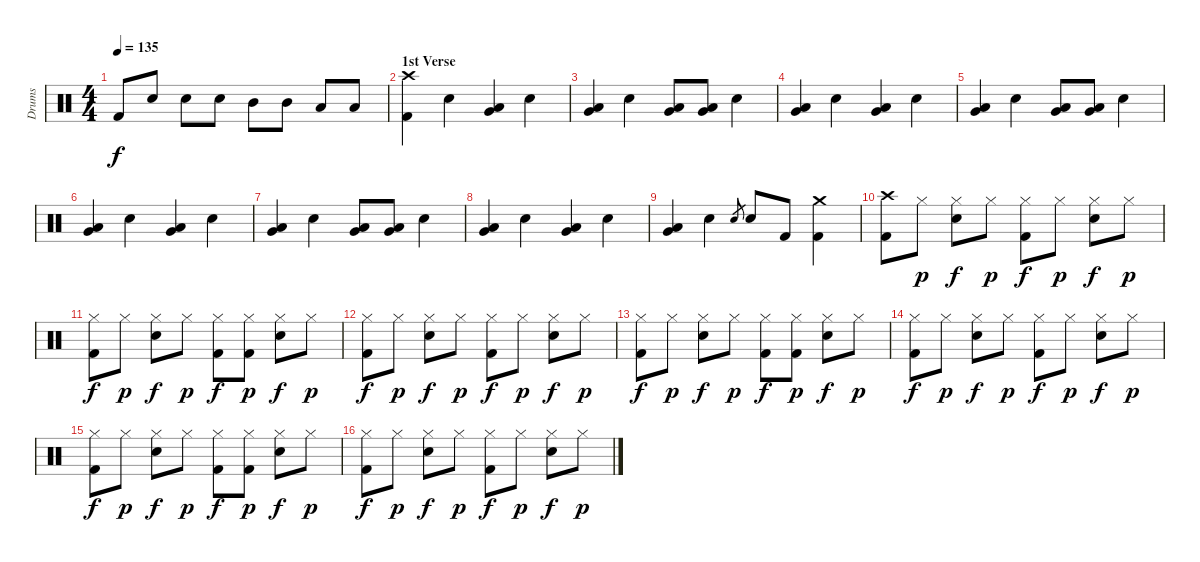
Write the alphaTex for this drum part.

\track ("Drums" "Drums") {instrument percussion}
\staff {score}
\articulation defaults
\ts (4 4)
\tempo 135
\clef neutral
\ks c "Kick (hit) 2".8{dy f} "Snare (hit) 2".8 "Snare (hit) 2".8 "Snare (hit) 2".8 "Mid Tom (hit)".8 "Mid Tom (hit)".8 "Low Tom (hit)".8 "Low Tom (hit)".8
|
\section ("" "1st Verse")
("Crash high (hit)" "Kick (hit) 2").4 "Snare (hit) 2".4 ("Very Low Tom (hit)" "Low Floor Tom (hit)").4 "Snare (hit) 2".4 |
("Very Low Tom (hit)" "Low Floor Tom (hit)").4 "Snare (hit) 2".4 ("Very Low Tom (hit)" "Low Floor Tom (hit)").8 ("Very Low Tom (hit)" "Low Floor Tom (hit)").8 "Snare (hit) 2".4 |
("Very Low Tom (hit)" "Low Floor Tom (hit)").4 "Snare (hit) 2".4 ("Very Low Tom (hit)" "Low Floor Tom (hit)").4 "Snare (hit) 2".4 |
("Very Low Tom (hit)" "Low Floor Tom (hit)").4 "Snare (hit) 2".4 ("Very Low Tom (hit)" "Low Floor Tom (hit)").8 ("Very Low Tom (hit)" "Low Floor Tom (hit)").8 "Snare (hit) 2".4 |
("Very Low Tom (hit)" "Low Floor Tom (hit)").4 "Snare (hit) 2".4 ("Very Low Tom (hit)" "Low Floor Tom (hit)").4 "Snare (hit) 2".4 |
("Very Low Tom (hit)" "Low Floor Tom (hit)").4 "Snare (hit) 2".4 ("Very Low Tom (hit)" "Low Floor Tom (hit)").8 ("Very Low Tom (hit)" "Low Floor Tom (hit)").8 "Snare (hit) 2".4 |
("Very Low Tom (hit)" "Low Floor Tom (hit)").4 "Snare (hit) 2".4 ("Very Low Tom (hit)" "Low Floor Tom (hit)").4 "Snare (hit) 2".4 |
("Very Low Tom (hit)" "Low Floor Tom (hit)").4 "Snare (hit) 2".4 "Snare (hit) 2".8{gr} "Snare (hit) 2".8 "Kick (hit) 2".8 ("Crash medium (hit)" "Kick (hit) 2").4 |
("Crash high (hit)" "Kick (hit) 2").8 "Hi-Hat (closed)".8{dy p} ("Hi-Hat (closed)" "Snare (hit) 2").8{dy f} "Hi-Hat (closed)".8{dy p} ("Hi-Hat (closed)" "Kick (hit) 2").8{dy f} "Hi-Hat (closed)".8{dy p} ("Hi-Hat (closed)" "Snare (hit) 2").8{dy f} "Hi-Hat (closed)".8{dy p} |
("Hi-Hat (closed)" "Kick (hit) 2").8{dy f} "Hi-Hat (closed)".8{dy p} ("Hi-Hat (closed)" "Snare (hit) 2").8{dy f} "Hi-Hat (closed)".8{dy p} ("Hi-Hat (closed)" "Kick (hit) 2").8{dy f} ("Hi-Hat (closed)" "Kick (hit) 2").8{dy p} ("Hi-Hat (closed)" "Snare (hit) 2").8{dy f} "Hi-Hat (closed)".8{dy p} |
("Hi-Hat (closed)" "Kick (hit) 2").8{dy f} "Hi-Hat (closed)".8{dy p} ("Hi-Hat (closed)" "Snare (hit) 2").8{dy f} "Hi-Hat (closed)".8{dy p} ("Hi-Hat (closed)" "Kick (hit) 2").8{dy f} "Hi-Hat (closed)".8{dy p} ("Hi-Hat (closed)" "Snare (hit) 2").8{dy f} "Hi-Hat (closed)".8{dy p} |
("Hi-Hat (closed)" "Kick (hit) 2").8{dy f} "Hi-Hat (closed)".8{dy p} ("Hi-Hat (closed)" "Snare (hit) 2").8{dy f} "Hi-Hat (closed)".8{dy p} ("Hi-Hat (closed)" "Kick (hit) 2").8{dy f} ("Hi-Hat (closed)" "Kick (hit) 2").8{dy p} ("Hi-Hat (closed)" "Snare (hit) 2").8{dy f} "Hi-Hat (closed)".8{dy p} |
("Hi-Hat (closed)" "Kick (hit) 2").8{dy f} "Hi-Hat (closed)".8{dy p} ("Hi-Hat (closed)" "Snare (hit) 2").8{dy f} "Hi-Hat (closed)".8{dy p} ("Hi-Hat (closed)" "Kick (hit) 2").8{dy f} "Hi-Hat (closed)".8{dy p} ("Hi-Hat (closed)" "Snare (hit) 2").8{dy f} "Hi-Hat (closed)".8{dy p} |
("Hi-Hat (closed)" "Kick (hit) 2").8{dy f} "Hi-Hat (closed)".8{dy p} ("Hi-Hat (closed)" "Snare (hit) 2").8{dy f} "Hi-Hat (closed)".8{dy p} ("Hi-Hat (closed)" "Kick (hit) 2").8{dy f} ("Hi-Hat (closed)" "Kick (hit) 2").8{dy p} ("Hi-Hat (closed)" "Snare (hit) 2").8{dy f} "Hi-Hat (closed)".8{dy p} |
("Hi-Hat (closed)" "Kick (hit) 2").8{dy f} "Hi-Hat (closed)".8{dy p} ("Hi-Hat (closed)" "Snare (hit) 2").8{dy f} "Hi-Hat (closed)".8{dy p} ("Hi-Hat (closed)" "Kick (hit) 2").8{dy f} "Hi-Hat (closed)".8{dy p} ("Hi-Hat (closed)" "Snare (hit) 2").8{dy f} "Hi-Hat (closed)".8{dy p}
